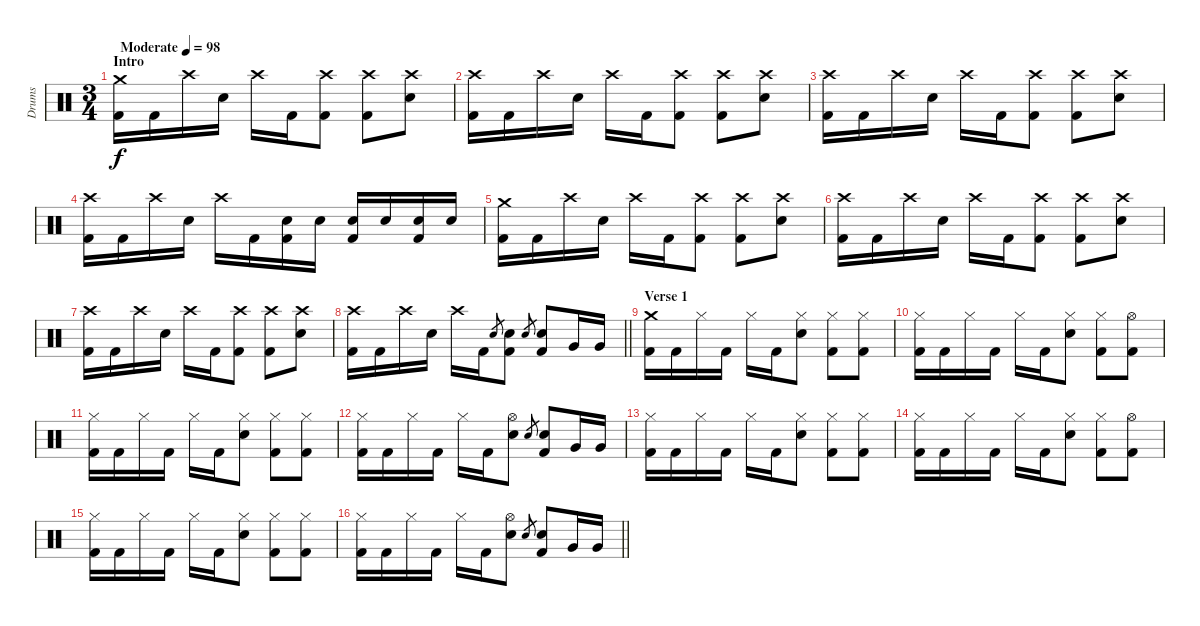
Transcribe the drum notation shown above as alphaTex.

\track ("Drums" "Drums") {instrument percussion}
\staff {score}
\articulation defaults
\ts (3 4)
\section ("" "Intro")
\tempo (98 "Moderate")
\clef neutral
\ks c
("Crash medium (hit)" "Kick (hit) 2").16{dy f} "Kick (hit) 2".16 "Crash high (hit)".16 "Electric Snare (hit)".16 "Crash high (hit)".16 "Kick (hit) 2".16 ("Crash high (hit)" "Kick (hit) 2").8 ("Crash high (hit)" "Kick (hit) 2").8 ("Crash high (hit)" "Electric Snare (hit)").8 |
("Crash high (hit)" "Kick (hit) 2").16 "Kick (hit) 2".16 "Crash high (hit)".16 "Electric Snare (hit)".16 "Crash high (hit)".16 "Kick (hit) 2".16 ("Crash high (hit)" "Kick (hit) 2").8 ("Crash high (hit)" "Kick (hit) 2").8 ("Crash high (hit)" "Electric Snare (hit)").8 |
("Crash high (hit)" "Kick (hit) 2").16 "Kick (hit) 2".16 "Crash high (hit)".16 "Electric Snare (hit)".16 "Crash high (hit)".16 "Kick (hit) 2".16 ("Crash high (hit)" "Kick (hit) 2").8 ("Crash high (hit)" "Kick (hit) 2").8 ("Crash high (hit)" "Electric Snare (hit)").8 |
("Crash high (hit)" "Kick (hit) 2").16 "Kick (hit) 2".16 "Crash high (hit)".16 "Electric Snare (hit)".16 "Crash high (hit)".16 "Kick (hit) 2".16 ("Electric Snare (hit)" "Kick (hit) 2").16 "Electric Snare (hit)".16 ("Electric Snare (hit)" "Kick (hit) 2").16 "Electric Snare (hit)".16 ("Electric Snare (hit)" "Kick (hit) 2").16 "Electric Snare (hit)".16 |
("Crash medium (hit)" "Kick (hit) 2").16 "Kick (hit) 2".16 "Crash high (hit)".16 "Electric Snare (hit)".16 "Crash high (hit)".16 "Kick (hit) 2".16 ("Crash high (hit)" "Kick (hit) 2").8 ("Crash high (hit)" "Kick (hit) 2").8 ("Crash high (hit)" "Electric Snare (hit)").8 |
("Crash high (hit)" "Kick (hit) 2").16 "Kick (hit) 2".16 "Crash high (hit)".16 "Electric Snare (hit)".16 "Crash high (hit)".16 "Kick (hit) 2".16 ("Crash high (hit)" "Kick (hit) 2").8 ("Crash high (hit)" "Kick (hit) 2").8 ("Crash high (hit)" "Electric Snare (hit)").8 |
("Crash high (hit)" "Kick (hit) 2").16 "Kick (hit) 2".16 "Crash high (hit)".16 "Electric Snare (hit)".16 "Crash high (hit)".16 "Kick (hit) 2".16 ("Crash high (hit)" "Kick (hit) 2").8 ("Crash high (hit)" "Kick (hit) 2").8 ("Crash high (hit)" "Electric Snare (hit)").8 |
\barLineRight lightlight
("Crash high (hit)" "Kick (hit) 2").16 "Kick (hit) 2".16 "Crash high (hit)".16 "Electric Snare (hit)".16 "Crash high (hit)".16 "Kick (hit) 2".16 "Electric Snare (hit)".8{gr} ("Electric Snare (hit)" "Kick (hit) 2").8 "Electric Snare (hit)".8{gr} ("Electric Snare (hit)" "Kick (hit) 2").8 "Very Low Tom (hit)".16 "Very Low Tom (hit)".16 |
\section ("" "Verse 1")
("Crash medium (hit)" "Kick (hit) 2").16 "Kick (hit) 2".16 "Hi-Hat (closed)".16 "Kick (hit) 2".16 "Hi-Hat (closed)".16 "Kick (hit) 2".16 ("Hi-Hat (closed)" "Electric Snare (hit)").8 ("Hi-Hat (closed)" "Kick (hit) 2").8 ("Hi-Hat (closed)" "Kick (hit) 2").8 |
("Hi-Hat (closed)" "Kick (hit) 2").16 "Kick (hit) 2".16 "Hi-Hat (closed)".16 "Kick (hit) 2".16 "Hi-Hat (closed)".16 "Kick (hit) 2".16 ("Hi-Hat (closed)" "Electric Snare (hit)").8 ("Hi-Hat (closed)" "Kick (hit) 2").8 ("Hi-Hat (open)" "Kick (hit) 2").8 |
("Hi-Hat (closed)" "Kick (hit) 2").16 "Kick (hit) 2".16 "Hi-Hat (closed)".16 "Kick (hit) 2".16 "Hi-Hat (closed)".16 "Kick (hit) 2".16 ("Hi-Hat (closed)" "Electric Snare (hit)").8 ("Hi-Hat (closed)" "Kick (hit) 2").8 ("Hi-Hat (closed)" "Kick (hit) 2").8 |
("Hi-Hat (closed)" "Kick (hit) 2").16 "Kick (hit) 2".16 "Hi-Hat (closed)".16 "Kick (hit) 2".16 "Hi-Hat (closed)".16 "Kick (hit) 2".16 ("Hi-Hat (open)" "Electric Snare (hit)").8 "Electric Snare (hit)".8{gr} ("Electric Snare (hit)" "Kick (hit) 2").8 "Very Low Tom (hit)".16 "Very Low Tom (hit)".16 |
("Hi-Hat (closed)" "Kick (hit) 2").16 "Kick (hit) 2".16 "Hi-Hat (closed)".16 "Kick (hit) 2".16 "Hi-Hat (closed)".16 "Kick (hit) 2".16 ("Hi-Hat (closed)" "Electric Snare (hit)").8 ("Hi-Hat (closed)" "Kick (hit) 2").8 ("Hi-Hat (closed)" "Kick (hit) 2").8 |
("Hi-Hat (closed)" "Kick (hit) 2").16 "Kick (hit) 2".16 "Hi-Hat (closed)".16 "Kick (hit) 2".16 "Hi-Hat (closed)".16 "Kick (hit) 2".16 ("Hi-Hat (closed)" "Electric Snare (hit)").8 ("Hi-Hat (closed)" "Kick (hit) 2").8 ("Hi-Hat (open)" "Kick (hit) 2").8 |
("Hi-Hat (closed)" "Kick (hit) 2").16 "Kick (hit) 2".16 "Hi-Hat (closed)".16 "Kick (hit) 2".16 "Hi-Hat (closed)".16 "Kick (hit) 2".16 ("Hi-Hat (closed)" "Electric Snare (hit)").8 ("Hi-Hat (closed)" "Kick (hit) 2").8 ("Hi-Hat (closed)" "Kick (hit) 2").8 |
\barLineRight lightlight
("Hi-Hat (closed)" "Kick (hit) 2").16 "Kick (hit) 2".16 "Hi-Hat (closed)".16 "Kick (hit) 2".16 "Hi-Hat (closed)".16 "Kick (hit) 2".16 ("Hi-Hat (open)" "Electric Snare (hit)").8 "Electric Snare (hit)".8{gr} ("Electric Snare (hit)" "Kick (hit) 2").8 "Very Low Tom (hit)".16 "Very Low Tom (hit)".16
